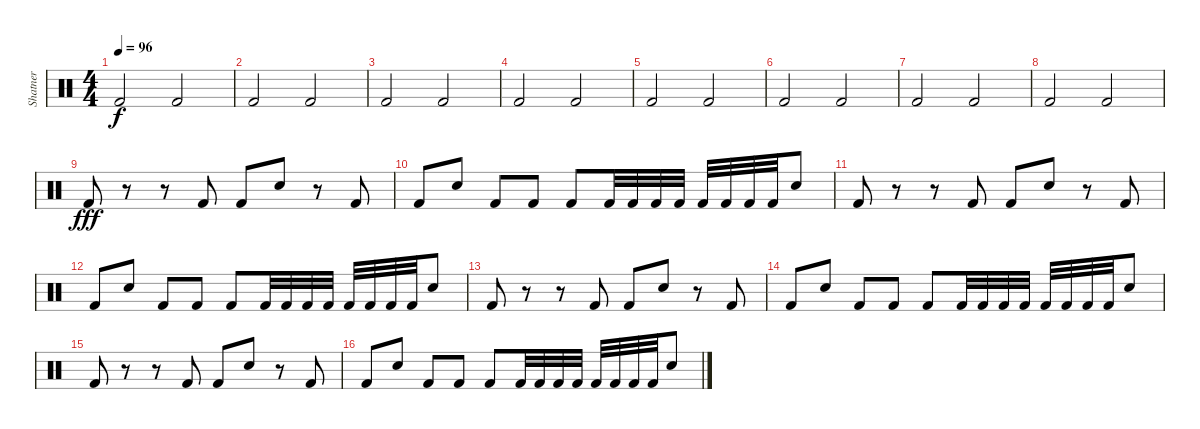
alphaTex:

\track ("Shatner" "Shatner") {instrument percussion}
\staff {score}
\articulation defaults
\ts (4 4)
\tempo 96
\clef neutral
\ks c "Kick (hit) 2".2{dy f} "Kick (hit) 2".2
|
"Kick (hit) 2".2 "Kick (hit) 2".2 |
"Kick (hit) 2".2 "Kick (hit) 2".2 |
"Kick (hit) 2".2 "Kick (hit) 2".2 |
"Kick (hit) 2".2 "Kick (hit) 2".2 |
"Kick (hit) 2".2 "Kick (hit) 2".2 |
"Kick (hit) 2".2 "Kick (hit) 2".2 |
"Kick (hit) 2".2 "Kick (hit) 2".2 |
"Kick (hit) 2".8{dy fff} r.8 r.8 "Kick (hit) 2".8 "Kick (hit) 2".8 "Electric Snare (hit)".8 r.8 "Kick (hit) 2".8 |
"Kick (hit) 2".8 "Electric Snare (hit)".8 "Kick (hit) 2".8 "Kick (hit) 2".8 "Kick (hit) 2".8 "Kick (hit) 2".32 "Kick (hit) 2".32 "Kick (hit) 2".32 "Kick (hit) 2".32 "Kick (hit) 2".32 "Kick (hit) 2".32 "Kick (hit) 2".32 "Kick (hit) 2".32 "Electric Snare (hit)".8 |
"Kick (hit) 2".8 r.8 r.8 "Kick (hit) 2".8 "Kick (hit) 2".8 "Electric Snare (hit)".8 r.8 "Kick (hit) 2".8 |
"Kick (hit) 2".8 "Electric Snare (hit)".8 "Kick (hit) 2".8 "Kick (hit) 2".8 "Kick (hit) 2".8 "Kick (hit) 2".32 "Kick (hit) 2".32 "Kick (hit) 2".32 "Kick (hit) 2".32 "Kick (hit) 2".32 "Kick (hit) 2".32 "Kick (hit) 2".32 "Kick (hit) 2".32 "Electric Snare (hit)".8 |
"Kick (hit) 2".8 r.8 r.8 "Kick (hit) 2".8 "Kick (hit) 2".8 "Electric Snare (hit)".8 r.8 "Kick (hit) 2".8 |
"Kick (hit) 2".8 "Electric Snare (hit)".8 "Kick (hit) 2".8 "Kick (hit) 2".8 "Kick (hit) 2".8 "Kick (hit) 2".32 "Kick (hit) 2".32 "Kick (hit) 2".32 "Kick (hit) 2".32 "Kick (hit) 2".32 "Kick (hit) 2".32 "Kick (hit) 2".32 "Kick (hit) 2".32 "Electric Snare (hit)".8 |
"Kick (hit) 2".8 r.8 r.8 "Kick (hit) 2".8 "Kick (hit) 2".8 "Electric Snare (hit)".8 r.8 "Kick (hit) 2".8 |
"Kick (hit) 2".8 "Electric Snare (hit)".8 "Kick (hit) 2".8 "Kick (hit) 2".8 "Kick (hit) 2".8 "Kick (hit) 2".32 "Kick (hit) 2".32 "Kick (hit) 2".32 "Kick (hit) 2".32 "Kick (hit) 2".32 "Kick (hit) 2".32 "Kick (hit) 2".32 "Kick (hit) 2".32 "Electric Snare (hit)".8
